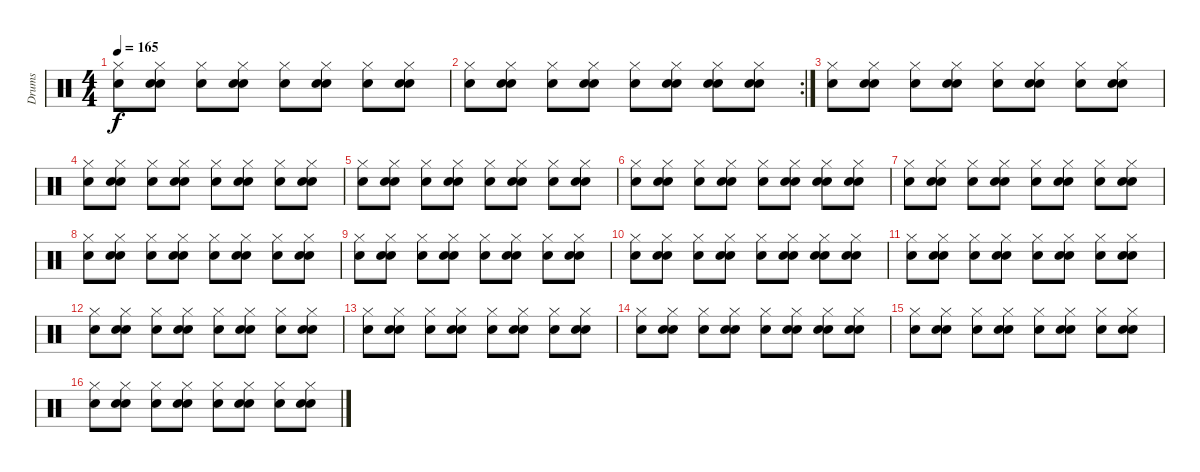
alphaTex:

\track ("Drums" "Drums") {instrument percussion}
\staff {score}
\articulation defaults
\ts (4 4)
\tempo 165
\clef neutral
\ks c
("Hi-Hat (closed)" "Electric Snare (hit)").8{dy f} ("Snare (hit) 2" "Electric Snare (hit)" "Hi-Hat (closed)").8 ("Hi-Hat (closed)" "Electric Snare (hit)").8 ("Snare (hit) 2" "Hi-Hat (closed)" "Electric Snare (hit)").8 ("Hi-Hat (closed)" "Electric Snare (hit)").8 ("Snare (hit) 2" "Hi-Hat (closed)" "Electric Snare (hit)").8 ("Hi-Hat (closed)" "Electric Snare (hit)").8 ("Snare (hit) 2" "Hi-Hat (closed)" "Electric Snare (hit)").8 |
\rc 2
("Hi-Hat (closed)" "Electric Snare (hit)").8 ("Snare (hit) 2" "Electric Snare (hit)" "Hi-Hat (closed)").8 ("Hi-Hat (closed)" "Electric Snare (hit)").8 ("Snare (hit) 2" "Hi-Hat (closed)" "Electric Snare (hit)").8 ("Hi-Hat (closed)" "Electric Snare (hit)").8 ("Snare (hit) 2" "Hi-Hat (closed)" "Electric Snare (hit)").8 ("Snare (hit) 2" "Hi-Hat (closed)" "Electric Snare (hit)").8 ("Snare (hit) 2" "Hi-Hat (closed)" "Electric Snare (hit)").8 |
("Hi-Hat (closed)" "Electric Snare (hit)").8 ("Snare (hit) 2" "Electric Snare (hit)" "Hi-Hat (closed)").8 ("Hi-Hat (closed)" "Electric Snare (hit)").8 ("Snare (hit) 2" "Hi-Hat (closed)" "Electric Snare (hit)").8 ("Hi-Hat (closed)" "Electric Snare (hit)").8 ("Snare (hit) 2" "Hi-Hat (closed)" "Electric Snare (hit)").8 ("Hi-Hat (closed)" "Electric Snare (hit)").8 ("Snare (hit) 2" "Hi-Hat (closed)" "Electric Snare (hit)").8 |
("Hi-Hat (closed)" "Electric Snare (hit)").8 ("Snare (hit) 2" "Electric Snare (hit)" "Hi-Hat (closed)").8 ("Hi-Hat (closed)" "Electric Snare (hit)").8 ("Snare (hit) 2" "Hi-Hat (closed)" "Electric Snare (hit)").8 ("Hi-Hat (closed)" "Electric Snare (hit)").8 ("Snare (hit) 2" "Hi-Hat (closed)" "Electric Snare (hit)").8 ("Hi-Hat (closed)" "Electric Snare (hit)").8 ("Snare (hit) 2" "Hi-Hat (closed)" "Electric Snare (hit)").8 |
("Hi-Hat (closed)" "Electric Snare (hit)").8 ("Snare (hit) 2" "Electric Snare (hit)" "Hi-Hat (closed)").8 ("Hi-Hat (closed)" "Electric Snare (hit)").8 ("Snare (hit) 2" "Hi-Hat (closed)" "Electric Snare (hit)").8 ("Hi-Hat (closed)" "Electric Snare (hit)").8 ("Snare (hit) 2" "Hi-Hat (closed)" "Electric Snare (hit)").8 ("Hi-Hat (closed)" "Electric Snare (hit)").8 ("Snare (hit) 2" "Hi-Hat (closed)" "Electric Snare (hit)").8 |
("Hi-Hat (closed)" "Electric Snare (hit)").8 ("Snare (hit) 2" "Electric Snare (hit)" "Hi-Hat (closed)").8 ("Hi-Hat (closed)" "Electric Snare (hit)").8 ("Snare (hit) 2" "Hi-Hat (closed)" "Electric Snare (hit)").8 ("Hi-Hat (closed)" "Electric Snare (hit)").8 ("Snare (hit) 2" "Hi-Hat (closed)" "Electric Snare (hit)").8 ("Snare (hit) 2" "Hi-Hat (closed)" "Electric Snare (hit)").8 ("Snare (hit) 2" "Hi-Hat (closed)" "Electric Snare (hit)").8 |
("Hi-Hat (closed)" "Electric Snare (hit)").8 ("Snare (hit) 2" "Electric Snare (hit)" "Hi-Hat (closed)").8 ("Hi-Hat (closed)" "Electric Snare (hit)").8 ("Snare (hit) 2" "Hi-Hat (closed)" "Electric Snare (hit)").8 ("Hi-Hat (closed)" "Electric Snare (hit)").8 ("Snare (hit) 2" "Hi-Hat (closed)" "Electric Snare (hit)").8 ("Hi-Hat (closed)" "Electric Snare (hit)").8 ("Snare (hit) 2" "Hi-Hat (closed)" "Electric Snare (hit)").8 |
("Hi-Hat (closed)" "Electric Snare (hit)").8 ("Snare (hit) 2" "Electric Snare (hit)" "Hi-Hat (closed)").8 ("Hi-Hat (closed)" "Electric Snare (hit)").8 ("Snare (hit) 2" "Hi-Hat (closed)" "Electric Snare (hit)").8 ("Hi-Hat (closed)" "Electric Snare (hit)").8 ("Snare (hit) 2" "Hi-Hat (closed)" "Electric Snare (hit)").8 ("Hi-Hat (closed)" "Electric Snare (hit)").8 ("Snare (hit) 2" "Hi-Hat (closed)" "Electric Snare (hit)").8 |
("Hi-Hat (closed)" "Electric Snare (hit)").8 ("Snare (hit) 2" "Electric Snare (hit)" "Hi-Hat (closed)").8 ("Hi-Hat (closed)" "Electric Snare (hit)").8 ("Snare (hit) 2" "Hi-Hat (closed)" "Electric Snare (hit)").8 ("Hi-Hat (closed)" "Electric Snare (hit)").8 ("Snare (hit) 2" "Hi-Hat (closed)" "Electric Snare (hit)").8 ("Hi-Hat (closed)" "Electric Snare (hit)").8 ("Snare (hit) 2" "Hi-Hat (closed)" "Electric Snare (hit)").8 |
("Hi-Hat (closed)" "Electric Snare (hit)").8 ("Snare (hit) 2" "Electric Snare (hit)" "Hi-Hat (closed)").8 ("Hi-Hat (closed)" "Electric Snare (hit)").8 ("Snare (hit) 2" "Hi-Hat (closed)" "Electric Snare (hit)").8 ("Hi-Hat (closed)" "Electric Snare (hit)").8 ("Snare (hit) 2" "Hi-Hat (closed)" "Electric Snare (hit)").8 ("Snare (hit) 2" "Hi-Hat (closed)" "Electric Snare (hit)").8 ("Snare (hit) 2" "Hi-Hat (closed)" "Electric Snare (hit)").8 |
("Hi-Hat (closed)" "Electric Snare (hit)").8 ("Snare (hit) 2" "Electric Snare (hit)" "Hi-Hat (closed)").8 ("Hi-Hat (closed)" "Electric Snare (hit)").8 ("Snare (hit) 2" "Hi-Hat (closed)" "Electric Snare (hit)").8 ("Hi-Hat (closed)" "Electric Snare (hit)").8 ("Snare (hit) 2" "Hi-Hat (closed)" "Electric Snare (hit)").8 ("Hi-Hat (closed)" "Electric Snare (hit)").8 ("Snare (hit) 2" "Hi-Hat (closed)" "Electric Snare (hit)").8 |
("Hi-Hat (closed)" "Electric Snare (hit)").8 ("Snare (hit) 2" "Electric Snare (hit)" "Hi-Hat (closed)").8 ("Hi-Hat (closed)" "Electric Snare (hit)").8 ("Snare (hit) 2" "Hi-Hat (closed)" "Electric Snare (hit)").8 ("Hi-Hat (closed)" "Electric Snare (hit)").8 ("Snare (hit) 2" "Hi-Hat (closed)" "Electric Snare (hit)").8 ("Hi-Hat (closed)" "Electric Snare (hit)").8 ("Snare (hit) 2" "Hi-Hat (closed)" "Electric Snare (hit)").8 |
("Hi-Hat (closed)" "Electric Snare (hit)").8 ("Snare (hit) 2" "Electric Snare (hit)" "Hi-Hat (closed)").8 ("Hi-Hat (closed)" "Electric Snare (hit)").8 ("Snare (hit) 2" "Hi-Hat (closed)" "Electric Snare (hit)").8 ("Hi-Hat (closed)" "Electric Snare (hit)").8 ("Snare (hit) 2" "Hi-Hat (closed)" "Electric Snare (hit)").8 ("Hi-Hat (closed)" "Electric Snare (hit)").8 ("Snare (hit) 2" "Hi-Hat (closed)" "Electric Snare (hit)").8 |
("Hi-Hat (closed)" "Electric Snare (hit)").8 ("Snare (hit) 2" "Electric Snare (hit)" "Hi-Hat (closed)").8 ("Hi-Hat (closed)" "Electric Snare (hit)").8 ("Snare (hit) 2" "Hi-Hat (closed)" "Electric Snare (hit)").8 ("Hi-Hat (closed)" "Electric Snare (hit)").8 ("Snare (hit) 2" "Hi-Hat (closed)" "Electric Snare (hit)").8 ("Snare (hit) 2" "Hi-Hat (closed)" "Electric Snare (hit)").8 ("Snare (hit) 2" "Hi-Hat (closed)" "Electric Snare (hit)").8 |
("Hi-Hat (closed)" "Electric Snare (hit)").8 ("Snare (hit) 2" "Electric Snare (hit)" "Hi-Hat (closed)").8 ("Hi-Hat (closed)" "Electric Snare (hit)").8 ("Snare (hit) 2" "Hi-Hat (closed)" "Electric Snare (hit)").8 ("Hi-Hat (closed)" "Electric Snare (hit)").8 ("Snare (hit) 2" "Hi-Hat (closed)" "Electric Snare (hit)").8 ("Hi-Hat (closed)" "Electric Snare (hit)").8 ("Snare (hit) 2" "Hi-Hat (closed)" "Electric Snare (hit)").8 |
("Hi-Hat (closed)" "Electric Snare (hit)").8 ("Snare (hit) 2" "Electric Snare (hit)" "Hi-Hat (closed)").8 ("Hi-Hat (closed)" "Electric Snare (hit)").8 ("Snare (hit) 2" "Hi-Hat (closed)" "Electric Snare (hit)").8 ("Hi-Hat (closed)" "Electric Snare (hit)").8 ("Snare (hit) 2" "Hi-Hat (closed)" "Electric Snare (hit)").8 ("Hi-Hat (closed)" "Electric Snare (hit)").8 ("Snare (hit) 2" "Hi-Hat (closed)" "Electric Snare (hit)").8
